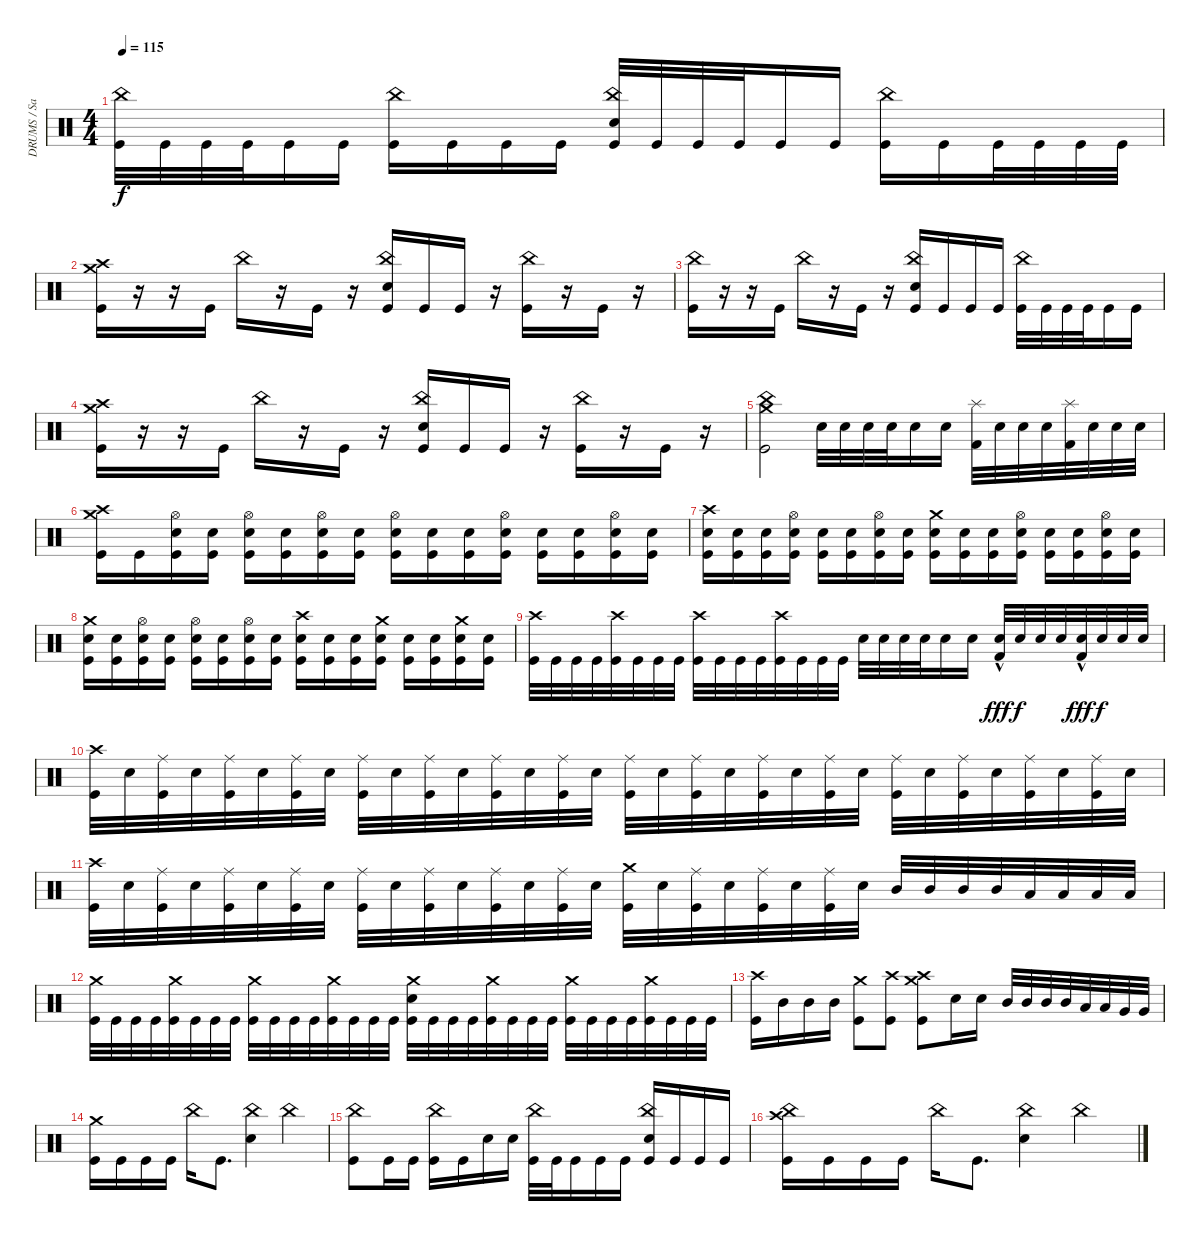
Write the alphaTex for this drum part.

\track ("DRUMS / Sasha" "DRUMS / Sa") {instrument percussion}
\staff {score}
\articulation defaults
\ts (4 4)
\tempo 115
\clef neutral
\ks c
("Kick (hit)" "China (hit)").32{dy f} "Kick (hit)".32 "Kick (hit)".32 "Kick (hit)".32 "Kick (hit)".16 "Kick (hit)".16 ("Kick (hit)" "China (hit)").16 "Kick (hit)".16 "Kick (hit)".16 "Kick (hit)".16 ("Kick (hit)" "China (hit)" "Snare (hit) 2").32 "Kick (hit)".32 "Kick (hit)".32 "Kick (hit)".32 "Kick (hit)".16 "Kick (hit)".16 ("Kick (hit)" "China (hit)").16 "Kick (hit)".16 "Kick (hit)".32 "Kick (hit)".32 "Kick (hit)".32 "Kick (hit)".32 |
("Crash high (hit)" "Crash medium (hit)" "Kick (hit)").16 r.16 r.16 "Kick (hit)".16 "China (hit)".16 r.16 "Kick (hit)".16 r.16 ("China (hit)" "Kick (hit)" "Snare (hit) 2").16 "Kick (hit)".16 "Kick (hit)".16 r.16 ("China (hit)" "Kick (hit)").16 r.16 "Kick (hit)".16 r.16 |
("China (hit)" "Kick (hit)").16 r.16 r.16 "Kick (hit)".16 "China (hit)".16 r.16 "Kick (hit)".16 r.16 ("China (hit)" "Kick (hit)" "Snare (hit) 2").16 "Kick (hit)".16 "Kick (hit)".16 "Kick (hit)".16 ("China (hit)" "Kick (hit)").32 "Kick (hit)".32 "Kick (hit)".32 "Kick (hit)".32 "Kick (hit)".16 "Kick (hit)".16 |
("Crash high (hit)" "Crash medium (hit)" "Kick (hit)").16 r.16 r.16 "Kick (hit)".16 "China (hit)".16 r.16 "Kick (hit)".16 r.16 ("China (hit)" "Kick (hit)" "Snare (hit) 2").16 "Kick (hit)".16 "Kick (hit)".16 r.16 ("China (hit)" "Kick (hit)").16 r.16 "Kick (hit)".16 r.16 |
("China (hit)" "Kick (hit)" "Crash medium (hit)").2 "Snare (hit) 2".32 "Snare (hit) 2".32 "Snare (hit) 2".32 "Snare (hit) 2".32 "Snare (hit) 2".16 "Snare (hit) 2".16 ("Splash (hit)" "Kick (hit) 2").32 "Snare (hit) 2".32 "Snare (hit) 2".32 "Snare (hit) 2".32 ("Splash (hit)" "Kick (hit) 2").32 "Snare (hit) 2".32 "Snare (hit) 2".32 "Snare (hit) 2".32 |
("Crash high (hit)" "Crash medium (hit)" "Kick (hit)").16 "Kick (hit)".16 ("Hi-Hat (open)" "Snare (hit) 2" "Kick (hit)").16 ("Snare (hit) 2" "Kick (hit)").16 ("Hi-Hat (open)" "Snare (hit) 2" "Kick (hit)").16 ("Snare (hit) 2" "Kick (hit)").16 ("Hi-Hat (open)" "Snare (hit) 2" "Kick (hit)").16 ("Snare (hit) 2" "Kick (hit)").16 ("Hi-Hat (open)" "Snare (hit) 2" "Kick (hit)").16 ("Snare (hit) 2" "Kick (hit)").16 ("Snare (hit) 2" "Kick (hit)").16 ("Hi-Hat (open)" "Snare (hit) 2" "Kick (hit)").16 ("Snare (hit) 2" "Kick (hit)").16 ("Snare (hit) 2" "Kick (hit)").16 ("Hi-Hat (open)" "Snare (hit) 2" "Kick (hit)").16 ("Snare (hit) 2" "Kick (hit)").16 |
("Crash high (hit)" "Snare (hit) 2" "Kick (hit)").16 ("Snare (hit) 2" "Kick (hit)").16 ("Snare (hit) 2" "Kick (hit)").16 ("Hi-Hat (open)" "Snare (hit) 2" "Kick (hit)").16 ("Snare (hit) 2" "Kick (hit)").16 ("Snare (hit) 2" "Kick (hit)").16 ("Hi-Hat (open)" "Snare (hit) 2" "Kick (hit)").16 ("Snare (hit) 2" "Kick (hit)").16 ("Crash medium (hit)" "Snare (hit) 2" "Kick (hit)").16 ("Snare (hit) 2" "Kick (hit)").16 ("Snare (hit) 2" "Kick (hit)").16 ("Hi-Hat (open)" "Snare (hit) 2" "Kick (hit)").16 ("Snare (hit) 2" "Kick (hit)").16 ("Snare (hit) 2" "Kick (hit)").16 ("Hi-Hat (open)" "Snare (hit) 2" "Kick (hit)").16 ("Snare (hit) 2" "Kick (hit)").16 |
("Crash medium (hit)" "Kick (hit)" "Snare (hit) 2").16 ("Kick (hit)" "Snare (hit) 2").16 ("Hi-Hat (open)" "Snare (hit) 2" "Kick (hit)").16 ("Snare (hit) 2" "Kick (hit)").16 ("Hi-Hat (open)" "Snare (hit) 2" "Kick (hit)").16 ("Snare (hit) 2" "Kick (hit)").16 ("Hi-Hat (open)" "Snare (hit) 2" "Kick (hit)").16 ("Snare (hit) 2" "Kick (hit)").16 ("Crash high (hit)" "Snare (hit) 2" "Kick (hit)").16 ("Snare (hit) 2" "Kick (hit)").16 ("Snare (hit) 2" "Kick (hit)").16 ("Crash medium (hit)" "Snare (hit) 2" "Kick (hit)").16 ("Snare (hit) 2" "Kick (hit)").16 ("Snare (hit) 2" "Kick (hit)").16 ("Crash medium (hit)" "Snare (hit) 2" "Kick (hit)").16 ("Snare (hit) 2" "Kick (hit)").16 |
("Kick (hit)" "Crash high (hit)").32 "Kick (hit)".32 "Kick (hit)".32 "Kick (hit)".32 ("Kick (hit)" "Crash high (hit)").32 "Kick (hit)".32 "Kick (hit)".32 "Kick (hit)".32 ("Kick (hit)" "Crash high (hit)").32 "Kick (hit)".32 "Kick (hit)".32 "Kick (hit)".32 ("Kick (hit)" "Crash high (hit)").32 "Kick (hit)".32 "Kick (hit)".32 "Kick (hit)".32 "Electric Snare (hit)".32 "Electric Snare (hit)".32 "Electric Snare (hit)".32 "Electric Snare (hit)".32 "Electric Snare (hit)".16 "Electric Snare (hit)".16 ("Electric Snare (hit)"{hac} "Kick (hit) 2").32{dy fff} "Electric Snare (hit)".32{dy f} "Electric Snare (hit)".32 "Electric Snare (hit)".32 ("Electric Snare (hit)"{hac} "Kick (hit) 2").32{dy fff} "Electric Snare (hit)".32{dy f} "Electric Snare (hit)".32 "Electric Snare (hit)".32 |
("Crash high (hit)" "Kick (hit)").32 "Snare (hit) 2".32 ("Ride (middle)" "Kick (hit)").32 "Snare (hit) 2".32 ("Ride (middle)" "Kick (hit)").32 "Snare (hit) 2".32 ("Ride (middle)" "Kick (hit)").32 "Snare (hit) 2".32 ("Ride (middle)" "Kick (hit)").32 "Snare (hit) 2".32 ("Ride (middle)" "Kick (hit)").32 "Snare (hit) 2".32 ("Ride (middle)" "Kick (hit)").32 "Snare (hit) 2".32 ("Ride (middle)" "Kick (hit)").32 "Snare (hit) 2".32 ("Ride (middle)" "Kick (hit)").32 "Snare (hit) 2".32 ("Ride (middle)" "Kick (hit)").32 "Snare (hit) 2".32 ("Ride (middle)" "Kick (hit)").32 "Snare (hit) 2".32 ("Ride (middle)" "Kick (hit)").32 "Snare (hit) 2".32 ("Ride (middle)" "Kick (hit)").32 "Snare (hit) 2".32 ("Ride (middle)" "Kick (hit)").32 "Snare (hit) 2".32 ("Ride (middle)" "Kick (hit)").32 "Snare (hit) 2".32 ("Ride (middle)" "Kick (hit)").32 "Snare (hit) 2".32 |
("Crash high (hit)" "Kick (hit)").32 "Snare (hit) 2".32 ("Ride (middle)" "Kick (hit)").32 "Snare (hit) 2".32 ("Ride (middle)" "Kick (hit)").32 "Snare (hit) 2".32 ("Ride (middle)" "Kick (hit)").32 "Snare (hit) 2".32 ("Ride (middle)" "Kick (hit)").32 "Snare (hit) 2".32 ("Ride (middle)" "Kick (hit)").32 "Snare (hit) 2".32 ("Ride (middle)" "Kick (hit)").32 "Snare (hit) 2".32 ("Ride (middle)" "Kick (hit)").32 "Snare (hit) 2".32 ("Crash medium (hit)" "Kick (hit)").32 "Snare (hit) 2".32 ("Ride (middle)" "Kick (hit)").32 "Snare (hit) 2".32 ("Ride (middle)" "Kick (hit)").32 "Snare (hit) 2".32 ("Ride (middle)" "Kick (hit)").32 "Snare (hit) 2".32 "Mid Tom (hit)".32 "Mid Tom (hit)".32 "Mid Tom (hit)".32 "Mid Tom (hit)".32 "Low Tom (hit)".32 "Low Tom (hit)".32 "Low Tom (hit)".32 "Low Tom (hit)".32 |
("Crash medium (hit)" "Kick (hit)").32 "Kick (hit)".32 "Kick (hit)".32 "Kick (hit)".32 ("Kick (hit)" "Crash medium (hit)").32 "Kick (hit)".32 "Kick (hit)".32 "Kick (hit)".32 ("Crash medium (hit)" "Kick (hit)").32 "Kick (hit)".32 "Kick (hit)".32 "Kick (hit)".32 ("Kick (hit)" "Crash medium (hit)").32 "Kick (hit)".32 "Kick (hit)".32 "Kick (hit)".32 ("Crash medium (hit)" "Snare (hit) 2" "Kick (hit)").32 "Kick (hit)".32 "Kick (hit)".32 "Kick (hit)".32 ("Kick (hit)" "Crash medium (hit)").32 "Kick (hit)".32 "Kick (hit)".32 "Kick (hit)".32 ("Crash medium (hit)" "Kick (hit)").32 "Kick (hit)".32 "Kick (hit)".32 "Kick (hit)".32 ("Kick (hit)" "Crash medium (hit)").32 "Kick (hit)".32 "Kick (hit)".32 "Kick (hit)".32 |
("Crash high (hit)" "Kick (hit)").16 "Mid Tom (hit)".16 "Mid Tom (hit)".16 "Mid Tom (hit)".16 ("Crash medium (hit)" "Kick (hit)").8 ("Crash high (hit)" "Kick (hit)").8 ("Crash medium (hit)" "Crash high (hit)" "Kick (hit)").8 "Snare (hit) 2".16 "Snare (hit) 2".16 "Mid Tom (hit)".32 "Mid Tom (hit)".32 "Mid Tom (hit)".32 "Mid Tom (hit)".32 "Low Tom (hit)".32 "Low Tom (hit)".32 "Very Low Tom (hit)".32 "Very Low Tom (hit)".32 |
("Crash medium (hit)" "Kick (hit)").16 "Kick (hit)".16 "Kick (hit)".16 "Kick (hit)".16 "China (hit)".16 "Kick (hit)".8{d} ("China (hit)" "Snare (hit) 2").4 "China (hit)".4 |
("China (hit)" "Kick (hit)").8 "Kick (hit)".16 "Kick (hit)".16 ("China (hit)" "Kick (hit)").16 "Kick (hit)".16 "Snare (hit) 2".16 "Snare (hit) 2".16 ("China (hit)" "Kick (hit)").32 "Kick (hit)".32 "Kick (hit)".16 "Kick (hit)".16 "Kick (hit)".16 ("China (hit)" "Snare (hit) 2" "Kick (hit)").16 "Kick (hit)".16 "Kick (hit)".16 "Kick (hit)".16 |
("Crash high (hit)" "China (hit)" "Kick (hit)").16 "Kick (hit)".16 "Kick (hit)".16 "Kick (hit)".16 "China (hit)".16 "Kick (hit)".8{d} ("China (hit)" "Snare (hit) 2").4 "China (hit)".4
